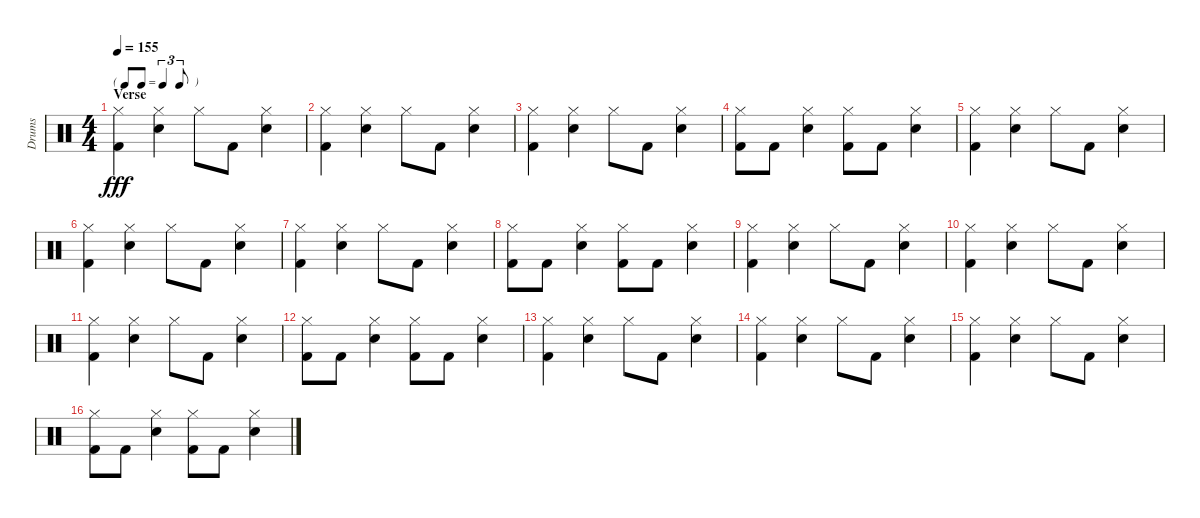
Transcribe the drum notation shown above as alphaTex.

\track ("Drums" "Drums") {instrument percussion}
\staff {score}
\articulation defaults
\ts (4 4)
\tf triplet8th
\section ("" "Verse")
\tempo 155
\clef neutral
\ks c
("Hi-Hat (closed)" "Kick (hit) 2").4{dy fff} ("Hi-Hat (closed)" "Snare (hit) 2").4 "Hi-Hat (closed)".8 "Kick (hit) 2".8 ("Hi-Hat (closed)" "Snare (hit) 2").4 |
("Hi-Hat (closed)" "Kick (hit) 2").4 ("Hi-Hat (closed)" "Snare (hit) 2").4 "Hi-Hat (closed)".8 "Kick (hit) 2".8 ("Hi-Hat (closed)" "Snare (hit) 2").4 |
("Hi-Hat (closed)" "Kick (hit) 2").4 ("Hi-Hat (closed)" "Snare (hit) 2").4 "Hi-Hat (closed)".8 "Kick (hit) 2".8 ("Hi-Hat (closed)" "Snare (hit) 2").4 |
("Hi-Hat (closed)" "Kick (hit) 2").8 "Kick (hit) 2".8 ("Hi-Hat (closed)" "Snare (hit) 2").4 ("Hi-Hat (closed)" "Kick (hit) 2").8 "Kick (hit) 2".8 ("Hi-Hat (closed)" "Snare (hit) 2").4 |
("Hi-Hat (closed)" "Kick (hit) 2").4 ("Hi-Hat (closed)" "Snare (hit) 2").4 "Hi-Hat (closed)".8 "Kick (hit) 2".8 ("Hi-Hat (closed)" "Snare (hit) 2").4 |
("Hi-Hat (closed)" "Kick (hit) 2").4 ("Hi-Hat (closed)" "Snare (hit) 2").4 "Hi-Hat (closed)".8 "Kick (hit) 2".8 ("Hi-Hat (closed)" "Snare (hit) 2").4 |
("Hi-Hat (closed)" "Kick (hit) 2").4 ("Hi-Hat (closed)" "Snare (hit) 2").4 "Hi-Hat (closed)".8 "Kick (hit) 2".8 ("Hi-Hat (closed)" "Snare (hit) 2").4 |
("Hi-Hat (closed)" "Kick (hit) 2").8 "Kick (hit) 2".8 ("Hi-Hat (closed)" "Snare (hit) 2").4 ("Hi-Hat (closed)" "Kick (hit) 2").8 "Kick (hit) 2".8 ("Hi-Hat (closed)" "Snare (hit) 2").4 |
("Hi-Hat (closed)" "Kick (hit) 2").4 ("Hi-Hat (closed)" "Snare (hit) 2").4 "Hi-Hat (closed)".8 "Kick (hit) 2".8 ("Hi-Hat (closed)" "Snare (hit) 2").4 |
("Hi-Hat (closed)" "Kick (hit) 2").4 ("Hi-Hat (closed)" "Snare (hit) 2").4 "Hi-Hat (closed)".8 "Kick (hit) 2".8 ("Hi-Hat (closed)" "Snare (hit) 2").4 |
("Hi-Hat (closed)" "Kick (hit) 2").4 ("Hi-Hat (closed)" "Snare (hit) 2").4 "Hi-Hat (closed)".8 "Kick (hit) 2".8 ("Hi-Hat (closed)" "Snare (hit) 2").4 |
("Hi-Hat (closed)" "Kick (hit) 2").8 "Kick (hit) 2".8 ("Hi-Hat (closed)" "Snare (hit) 2").4 ("Hi-Hat (closed)" "Kick (hit) 2").8 "Kick (hit) 2".8 ("Hi-Hat (closed)" "Snare (hit) 2").4 |
("Hi-Hat (closed)" "Kick (hit) 2").4 ("Hi-Hat (closed)" "Snare (hit) 2").4 "Hi-Hat (closed)".8 "Kick (hit) 2".8 ("Hi-Hat (closed)" "Snare (hit) 2").4 |
("Hi-Hat (closed)" "Kick (hit) 2").4 ("Hi-Hat (closed)" "Snare (hit) 2").4 "Hi-Hat (closed)".8 "Kick (hit) 2".8 ("Hi-Hat (closed)" "Snare (hit) 2").4 |
("Hi-Hat (closed)" "Kick (hit) 2").4 ("Hi-Hat (closed)" "Snare (hit) 2").4 "Hi-Hat (closed)".8 "Kick (hit) 2".8 ("Hi-Hat (closed)" "Snare (hit) 2").4 |
("Hi-Hat (closed)" "Kick (hit) 2").8 "Kick (hit) 2".8 ("Hi-Hat (closed)" "Snare (hit) 2").4 ("Hi-Hat (closed)" "Kick (hit) 2").8 "Kick (hit) 2".8 ("Hi-Hat (closed)" "Snare (hit) 2").4
